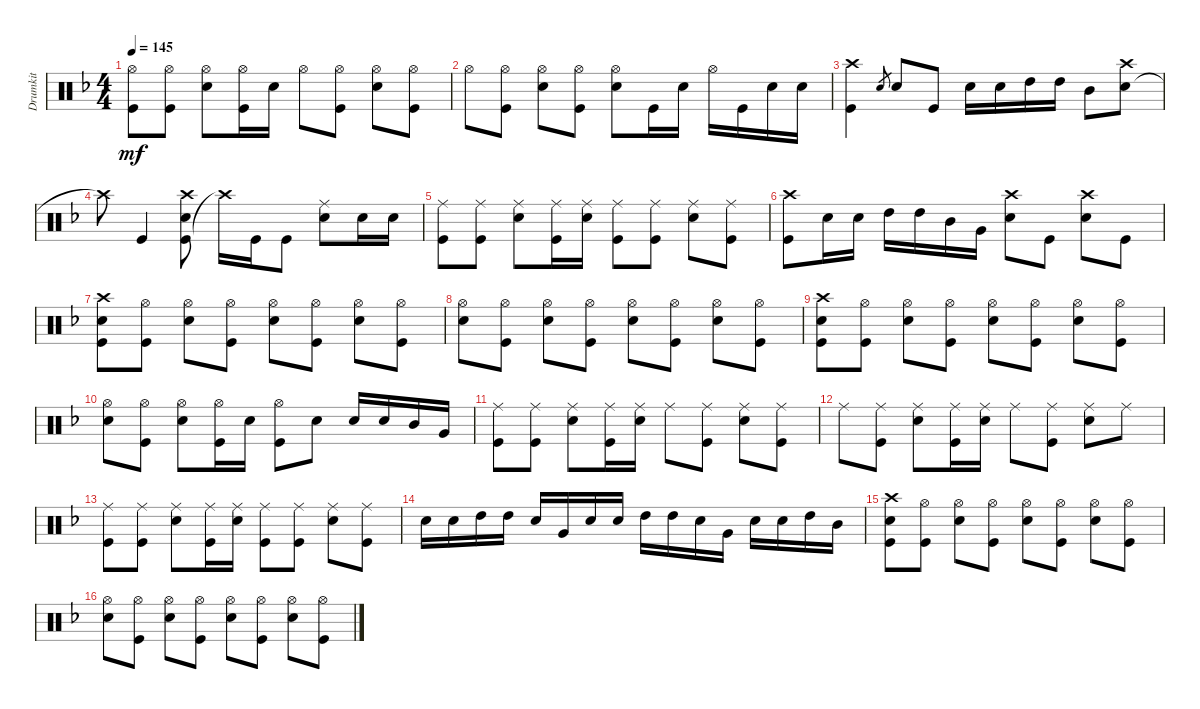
\track ("Drumkit" "Drumkit") {instrument percussion}
\staff {score}
\articulation defaults
\ts (4 4)
\tempo 145
\clef neutral
\ks f
("Kick (hit)" "Hi-Hat (open)").8{dy mf} ("Hi-Hat (open)" "Kick (hit)").8 ("Hi-Hat (open)" "Snare (hit) 2").8 ("Hi-Hat (open)" "Kick (hit)").16 "Snare (hit) 2".16 "Hi-Hat (open)".8 ("Hi-Hat (open)" "Kick (hit)").8 ("Snare (hit) 2" "Hi-Hat (open)").8 ("Hi-Hat (open)" "Kick (hit)").8 |
"Hi-Hat (open)".8 ("Hi-Hat (open)" "Kick (hit)").8 ("Snare (hit) 2" "Hi-Hat (open)").8 ("Hi-Hat (open)" "Kick (hit)").8 ("Snare (hit) 2" "Hi-Hat (open)").8 "Kick (hit)".16 "Snare (hit) 2".16 "Hi-Hat (open)".16 "Kick (hit)".16 "Snare (hit) 2".16 "Snare (hit) 2".16 |
("Crash high (hit)" "Kick (hit)").4 "Snare (hit)".8{gr} "Snare (hit) 2".8 "Kick (hit)".8 "Snare (hit) 2".16 "Snare (hit) 2".16 "High Tom (hit)".16 "High Tom (hit)".16 "Mid Tom (hit)".8 ("Snare (hit) 2" "Crash high (hit)").8 |
"Crash high (hit)"{t}.8 "Kick (hit)".4 ("Kick (hit)" "Snare (hit) 2" "Crash high (hit)").8 "Crash high (hit)"{t}.16 "Kick (hit)".16 "Kick (hit)".8 ("Snare (hit) 2" "Ride (middle)").8 "Snare (hit) 2".16 "Snare (hit) 2".16 |
("Kick (hit)" "Ride (middle)").8 ("Kick (hit)" "Ride (middle)").8 ("Snare (hit) 2" "Ride (middle)").8 ("Kick (hit)" "Ride (middle)").16 ("Snare (hit) 2" "Ride (middle)").16 ("Kick (hit)" "Ride (middle)").8 ("Kick (hit)" "Ride (middle)").8 ("Snare (hit) 2" "Ride (middle)").8 ("Kick (hit)" "Ride (middle)").8 |
("Kick (hit)" "Crash high (hit)").8 "Snare (hit) 2".16 "Snare (hit) 2".16 "High Tom (hit)".16 "High Tom (hit)".16 "Mid Tom (hit)".16 "Very Low Tom (hit)".16 ("Snare (hit) 2" "Crash high (hit)").8 "Kick (hit)".8 ("Snare (hit) 2" "Crash high (hit)").8 "Kick (hit)".8 |
("Crash high (hit)" "Snare (hit) 2" "Kick (hit)").8 ("Kick (hit)" "Hi-Hat (open)").8 ("Hi-Hat (open)" "Snare (hit) 2").8 ("Hi-Hat (open)" "Kick (hit)").8 ("Snare (hit) 2" "Hi-Hat (open)").8 ("Kick (hit)" "Hi-Hat (open)").8 ("Hi-Hat (open)" "Snare (hit) 2").8 ("Hi-Hat (open)" "Kick (hit)").8 |
("Snare (hit) 2" "Hi-Hat (open)").8 ("Kick (hit)" "Hi-Hat (open)").8 ("Hi-Hat (open)" "Snare (hit) 2").8 ("Hi-Hat (open)" "Kick (hit)").8 ("Snare (hit) 2" "Hi-Hat (open)").8 ("Kick (hit)" "Hi-Hat (open)").8 ("Hi-Hat (open)" "Snare (hit) 2").8 ("Hi-Hat (open)" "Kick (hit)").8 |
("Crash high (hit)" "Snare (hit) 2" "Kick (hit)").8 ("Kick (hit)" "Hi-Hat (open)").8 ("Hi-Hat (open)" "Snare (hit) 2").8 ("Hi-Hat (open)" "Kick (hit)").8 ("Snare (hit) 2" "Hi-Hat (open)").8 ("Kick (hit)" "Hi-Hat (open)").8 ("Hi-Hat (open)" "Snare (hit) 2").8 ("Hi-Hat (open)" "Kick (hit)").8 |
("Snare (hit) 2" "Hi-Hat (open)").8 ("Kick (hit)" "Hi-Hat (open)").8 ("Hi-Hat (open)" "Snare (hit) 2").8 ("Hi-Hat (open)" "Kick (hit)").16 "Snare (hit) 2".16 ("Hi-Hat (open)" "Kick (hit)").8 "Snare (hit) 2".8 "Snare (hit) 2".16 "Snare (hit) 2".16 "Mid Tom (hit)".16 "Very Low Tom (hit)".16 |
("Kick (hit)" "Ride (middle)").8 ("Kick (hit)" "Ride (middle)").8 ("Snare (hit) 2" "Ride (middle)").8 ("Kick (hit)" "Ride (middle)").16 ("Snare (hit) 2" "Ride (middle)").16 "Ride (middle)".8 ("Kick (hit)" "Ride (middle)").8 ("Snare (hit) 2" "Ride (middle)").8 ("Kick (hit)" "Ride (middle)").8 |
"Ride (middle)".8 ("Kick (hit)" "Ride (middle)").8 ("Snare (hit) 2" "Ride (middle)").8 ("Kick (hit)" "Ride (middle)").16 ("Snare (hit) 2" "Ride (middle)").16 "Ride (middle)".8 ("Kick (hit)" "Ride (middle)").8 ("Snare (hit) 2" "Ride (middle)").8 "Ride (middle)".8 |
("Kick (hit)" "Ride (middle)").8 ("Kick (hit)" "Ride (middle)").8 ("Snare (hit) 2" "Ride (middle)").8 ("Kick (hit)" "Ride (middle)").16 ("Snare (hit) 2" "Ride (middle)").16 ("Kick (hit)" "Ride (middle)").8 ("Kick (hit)" "Ride (middle)").8 ("Snare (hit) 2" "Ride (middle)").8 ("Kick (hit)" "Ride (middle)").8 |
"Snare (hit) 2".16 "Snare (hit) 2".16 "High Tom (hit)".16 "High Tom (hit)".16 "Snare (hit) 2".16 "Very Low Tom (hit)".16 "Snare (hit) 2".16 "Snare (hit) 2".16 "High Tom (hit)".16 "High Tom (hit)".16 "Snare (hit) 2".16 "Very Low Tom (hit)".16 "Snare (hit) 2".16 "Snare (hit) 2".16 "High Tom (hit)".16 "Mid Tom (hit)".16 |
("Crash high (hit)" "Snare (hit) 2" "Kick (hit)").8 ("Kick (hit)" "Hi-Hat (open)").8 ("Hi-Hat (open)" "Snare (hit) 2").8 ("Hi-Hat (open)" "Kick (hit)").8 ("Snare (hit) 2" "Hi-Hat (open)").8 ("Kick (hit)" "Hi-Hat (open)").8 ("Hi-Hat (open)" "Snare (hit) 2").8 ("Hi-Hat (open)" "Kick (hit)").8 |
("Snare (hit) 2" "Hi-Hat (open)").8 ("Kick (hit)" "Hi-Hat (open)").8 ("Hi-Hat (open)" "Snare (hit) 2").8 ("Hi-Hat (open)" "Kick (hit)").8 ("Snare (hit) 2" "Hi-Hat (open)").8 ("Kick (hit)" "Hi-Hat (open)").8 ("Hi-Hat (open)" "Snare (hit) 2").8 ("Hi-Hat (open)" "Kick (hit)").8
